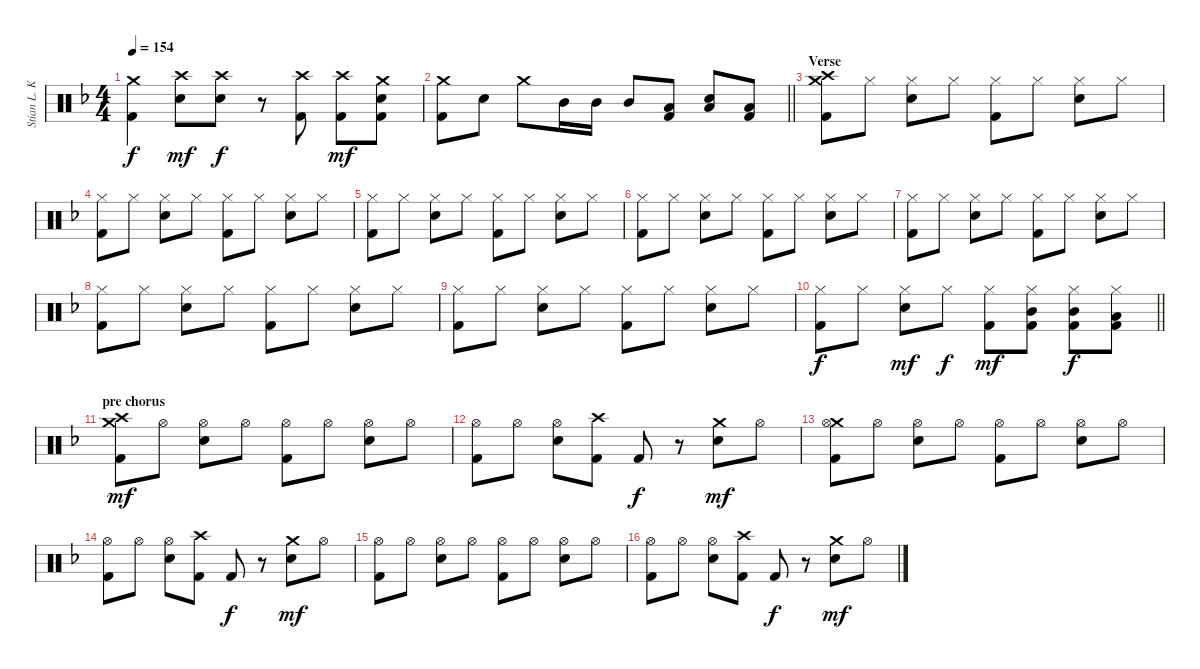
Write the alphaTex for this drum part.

\track ("Stian L. Kristoffersen" "Stian L. K") {instrument percussion}
\staff {score}
\articulation defaults
\ts (4 4)
\tempo 154
\clef neutral
\ks f
("Crash medium (hit)" "Kick (hit) 2").4{dy f} ("Crash high (hit)" "Snare (hit) 2").8{dy mf} ("Crash high (hit)" "Snare (hit) 2").8{dy f} r.8 ("Crash high (hit)" "Kick (hit) 2").8 ("Crash high (hit)" "Kick (hit) 2").8{dy mf} ("Crash medium (hit)" "Snare (hit) 2" "Kick (hit) 2").8 |
\barLineRight lightlight
("Crash medium (hit)" "Kick (hit) 2").8 "Snare (hit) 2".8 "Crash medium (hit)".8 "Mid Tom (hit)".16 "Mid Tom (hit)".16 "Mid Tom (hit)".8 ("Low Tom (hit)" "Kick (hit) 2").8 ("Low Tom (hit)" "Snare (hit) 2").8 ("Low Tom (hit)" "Kick (hit) 2").8 |
\section ("" "Verse")
("Crash medium (hit)" "Crash high (hit)" "Kick (hit) 2").8 "Hi-Hat (closed)".8 ("Hi-Hat (closed)" "Snare (hit) 2").8 "Hi-Hat (closed)".8 ("Hi-Hat (closed)" "Kick (hit) 2").8 "Hi-Hat (closed)".8 ("Hi-Hat (closed)" "Snare (hit) 2").8 "Hi-Hat (closed)".8 |
("Hi-Hat (closed)" "Kick (hit) 2").8 "Hi-Hat (closed)".8 ("Hi-Hat (closed)" "Snare (hit) 2").8 "Hi-Hat (closed)".8 ("Hi-Hat (closed)" "Kick (hit) 2").8 "Hi-Hat (closed)".8 ("Hi-Hat (closed)" "Snare (hit) 2").8 "Hi-Hat (closed)".8 |
("Hi-Hat (closed)" "Kick (hit) 2").8 "Hi-Hat (closed)".8 ("Hi-Hat (closed)" "Snare (hit) 2").8 "Hi-Hat (closed)".8 ("Hi-Hat (closed)" "Kick (hit) 2").8 "Hi-Hat (closed)".8 ("Hi-Hat (closed)" "Snare (hit) 2").8 "Hi-Hat (closed)".8 |
("Hi-Hat (closed)" "Kick (hit) 2").8 "Hi-Hat (closed)".8 ("Hi-Hat (closed)" "Snare (hit) 2").8 "Hi-Hat (closed)".8 ("Hi-Hat (closed)" "Kick (hit) 2").8 "Hi-Hat (closed)".8 ("Hi-Hat (closed)" "Snare (hit) 2").8 "Hi-Hat (closed)".8 |
("Hi-Hat (closed)" "Kick (hit) 2").8 "Hi-Hat (closed)".8 ("Hi-Hat (closed)" "Snare (hit) 2").8 "Hi-Hat (closed)".8 ("Hi-Hat (closed)" "Kick (hit) 2").8 "Hi-Hat (closed)".8 ("Hi-Hat (closed)" "Snare (hit) 2").8 "Hi-Hat (closed)".8 |
("Hi-Hat (closed)" "Kick (hit) 2").8 "Hi-Hat (closed)".8 ("Hi-Hat (closed)" "Snare (hit) 2").8 "Hi-Hat (closed)".8 ("Hi-Hat (closed)" "Kick (hit) 2").8 "Hi-Hat (closed)".8 ("Hi-Hat (closed)" "Snare (hit) 2").8 "Hi-Hat (closed)".8 |
("Hi-Hat (closed)" "Kick (hit) 2").8 "Hi-Hat (closed)".8 ("Hi-Hat (closed)" "Snare (hit) 2").8 "Hi-Hat (closed)".8 ("Hi-Hat (closed)" "Kick (hit) 2").8 "Hi-Hat (closed)".8 ("Hi-Hat (closed)" "Snare (hit) 2").8 "Hi-Hat (closed)".8 |
\barLineRight lightlight
("Hi-Hat (closed)" "Kick (hit) 2").8{dy f} "Hi-Hat (closed)".8 ("Hi-Hat (closed)" "Snare (hit) 2").8{dy mf} "Hi-Hat (closed)".8{dy f} ("Hi-Hat (closed)" "Kick (hit) 2").8{dy mf} ("Hi-Hat (closed)" "Mid Tom (hit)" "Kick (hit) 2").8 ("Hi-Hat (closed)" "Mid Tom (hit)" "Kick (hit) 2").8{dy f} ("Hi-Hat (closed)" "Low Tom (hit)" "Kick (hit) 2").8 |
\section ("" "pre chorus")
("Crash medium (hit)" "Crash high (hit)" "Kick (hit) 2").8{dy mf} "Hi-Hat (open)".8 ("Hi-Hat (open)" "Snare (hit) 2").8 "Hi-Hat (open)".8 ("Hi-Hat (open)" "Kick (hit) 2").8 "Hi-Hat (open)".8 ("Hi-Hat (open)" "Snare (hit) 2").8 "Hi-Hat (open)".8 |
("Hi-Hat (open)" "Kick (hit) 2").8 "Hi-Hat (open)".8 ("Hi-Hat (open)" "Snare (hit) 2").8 ("Crash high (hit)" "Kick (hit) 2").8 "Kick (hit) 2".8{dy f} r.8 ("Crash medium (hit)" "Snare (hit) 2").8{dy mf} "Hi-Hat (open)".8 |
("Crash medium (hit)" "Hi-Hat (open)" "Kick (hit) 2").8 "Hi-Hat (open)".8 ("Hi-Hat (open)" "Snare (hit) 2").8 "Hi-Hat (open)".8 ("Hi-Hat (open)" "Kick (hit) 2").8 "Hi-Hat (open)".8 ("Hi-Hat (open)" "Snare (hit) 2").8 "Hi-Hat (open)".8 |
("Hi-Hat (open)" "Kick (hit) 2").8 "Hi-Hat (open)".8 ("Hi-Hat (open)" "Snare (hit) 2").8 ("Crash high (hit)" "Kick (hit) 2").8 "Kick (hit) 2".8{dy f} r.8 ("Crash medium (hit)" "Snare (hit) 2").8{dy mf} "Hi-Hat (open)".8 |
("Hi-Hat (open)" "Kick (hit) 2").8 "Hi-Hat (open)".8 ("Hi-Hat (open)" "Snare (hit) 2").8 "Hi-Hat (open)".8 ("Hi-Hat (open)" "Kick (hit) 2").8 "Hi-Hat (open)".8 ("Hi-Hat (open)" "Snare (hit) 2").8 "Hi-Hat (open)".8 |
("Hi-Hat (open)" "Kick (hit) 2").8 "Hi-Hat (open)".8 ("Hi-Hat (open)" "Snare (hit) 2").8 ("Crash high (hit)" "Kick (hit) 2").8 "Kick (hit) 2".8{dy f} r.8 ("Crash medium (hit)" "Snare (hit) 2").8{dy mf} "Hi-Hat (open)".8
